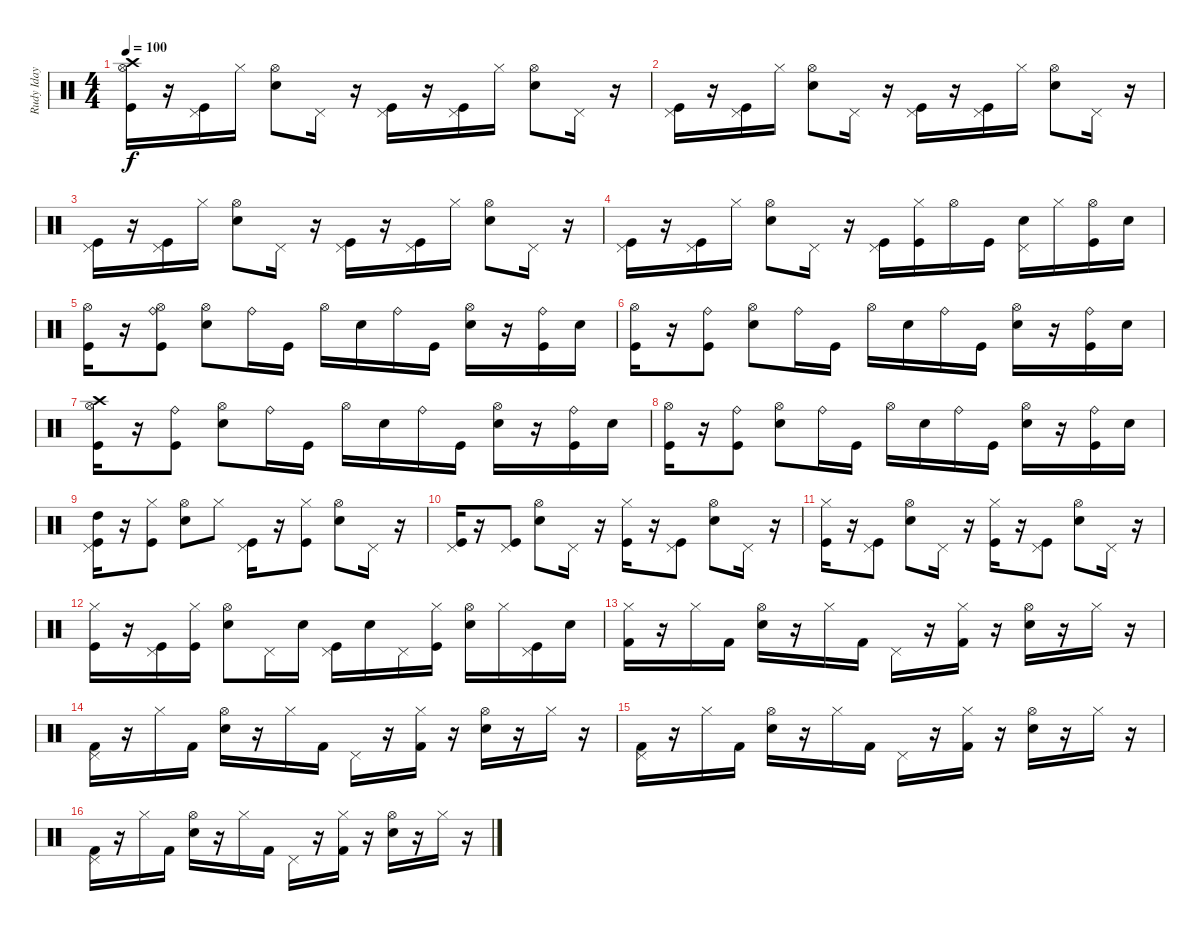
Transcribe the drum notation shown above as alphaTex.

\track ("Rudy Iday" "Rudy Iday") {instrument percussion}
\staff {score}
\articulation defaults
\ts (4 4)
\tempo 100
\clef neutral
\ks c
("Hi-Hat (open)" "Crash high (hit)" "Kick (hit)").16{dy f} r.16 ("Kick (hit)" "Pedal Hi-Hat (hit)").16 "Hi-Hat (closed)".16 ("Electric Snare (hit)" "Hi-Hat (open)").8 "Pedal Hi-Hat (hit)".16 r.16 ("Kick (hit)" "Pedal Hi-Hat (hit)").16 r.16 ("Kick (hit)" "Pedal Hi-Hat (hit)").16 "Hi-Hat (closed)".16 ("Electric Snare (hit)" "Hi-Hat (open)").8 "Pedal Hi-Hat (hit)".16 r.16 |
("Kick (hit)" "Pedal Hi-Hat (hit)").16 r.16 ("Kick (hit)" "Pedal Hi-Hat (hit)").16 "Hi-Hat (closed)".16 ("Electric Snare (hit)" "Hi-Hat (open)").8 "Pedal Hi-Hat (hit)".16 r.16 ("Pedal Hi-Hat (hit)" "Kick (hit)").16 r.16 ("Pedal Hi-Hat (hit)" "Kick (hit)").16 "Hi-Hat (closed)".16 ("Electric Snare (hit)" "Hi-Hat (open)").8 "Pedal Hi-Hat (hit)".16 r.16 |
("Pedal Hi-Hat (hit)" "Kick (hit)").16 r.16 ("Pedal Hi-Hat (hit)" "Kick (hit)").16 "Hi-Hat (closed)".16 ("Electric Snare (hit)" "Hi-Hat (open)").8 "Pedal Hi-Hat (hit)".16 r.16 ("Pedal Hi-Hat (hit)" "Kick (hit)").16 r.16 ("Pedal Hi-Hat (hit)" "Kick (hit)").16 "Hi-Hat (closed)".16 ("Electric Snare (hit)" "Hi-Hat (open)").8 "Pedal Hi-Hat (hit)".16 r.16 |
("Pedal Hi-Hat (hit)" "Kick (hit)").16 r.16 ("Pedal Hi-Hat (hit)" "Kick (hit)").16 "Hi-Hat (closed)".16 ("Electric Snare (hit)" "Hi-Hat (open)").8 "Pedal Hi-Hat (hit)".16 r.16 ("Pedal Hi-Hat (hit)" "Kick (hit)").16 ("Hi-Hat (closed)" "Kick (hit)").16 "Hi-Hat (open)".16 "Kick (hit)".16 ("Electric Snare (hit)" "Pedal Hi-Hat (hit)").16 "Hi-Hat (closed)".16 ("Hi-Hat (open)" "Kick (hit)").16 "Electric Snare (hit)".16 |
("Hi-Hat (open)" "Kick (hit)").16 r.16 ("Hi-Hat (open)" "Kick (hit)" "Ride (bell)").8 ("Electric Snare (hit)" "Hi-Hat (open)").8 "Ride (bell)".16 "Kick (hit)".16 "Hi-Hat (open)".16 "Electric Snare (hit)".16 "Ride (bell)".16 "Kick (hit)".16 ("Electric Snare (hit)" "Hi-Hat (open)").16 r.16 ("Ride (bell)" "Kick (hit)").16 "Electric Snare (hit)".16 |
("Hi-Hat (open)" "Kick (hit)").16 r.16 ("Ride (bell)" "Kick (hit)").8 ("Electric Snare (hit)" "Hi-Hat (open)").8 "Ride (bell)".16 "Kick (hit)".16 "Hi-Hat (open)".16 "Electric Snare (hit)".16 "Ride (bell)".16 "Kick (hit)".16 ("Electric Snare (hit)" "Hi-Hat (open)").16 r.16 ("Ride (bell)" "Kick (hit)").16 "Electric Snare (hit)".16 |
("Kick (hit)" "Hi-Hat (open)" "Crash high (hit)").16 r.16 ("Ride (bell)" "Kick (hit)").8 ("Electric Snare (hit)" "Hi-Hat (open)").8 "Ride (bell)".16 "Kick (hit)".16 "Hi-Hat (open)".16 "Electric Snare (hit)".16 "Ride (bell)".16 "Kick (hit)".16 ("Electric Snare (hit)" "Hi-Hat (open)").16 r.16 ("Ride (bell)" "Kick (hit)").16 "Electric Snare (hit)".16 |
("Hi-Hat (open)" "Kick (hit)").16 r.16 ("Ride (bell)" "Kick (hit)").8 ("Electric Snare (hit)" "Hi-Hat (open)").8 "Ride (bell)".16 "Kick (hit)".16 "Hi-Hat (open)".16 "Electric Snare (hit)".16 "Ride (bell)".16 "Kick (hit)".16 ("Electric Snare (hit)" "Hi-Hat (open)").16 r.16 ("Kick (hit)" "Ride (bell)").16 "Electric Snare (hit)".16 |
("High Tom (hit)" "Pedal Hi-Hat (hit)" "Kick (hit)").16 r.16 ("Kick (hit)" "Hi-Hat (closed)").8 ("Electric Snare (hit)" "Hi-Hat (open)").8 "Hi-Hat (closed)".8 ("Pedal Hi-Hat (hit)" "Kick (hit)").16 r.16 ("Hi-Hat (closed)" "Kick (hit)").8 ("Electric Snare (hit)" "Hi-Hat (open)").8 "Pedal Hi-Hat (hit)".16 r.16 |
("Pedal Hi-Hat (hit)" "Kick (hit)").16 r.16 ("Pedal Hi-Hat (hit)" "Kick (hit)").8 ("Electric Snare (hit)" "Hi-Hat (open)").8 "Pedal Hi-Hat (hit)".16 r.16 ("Kick (hit)" "Hi-Hat (closed)").16 r.16 ("Kick (hit)" "Pedal Hi-Hat (hit)").8 ("Electric Snare (hit)" "Hi-Hat (open)").8 "Pedal Hi-Hat (hit)".16 r.16 |
("Kick (hit)" "Hi-Hat (closed)").16 r.16 ("Pedal Hi-Hat (hit)" "Kick (hit)").8 ("Electric Snare (hit)" "Hi-Hat (open)").8 "Pedal Hi-Hat (hit)".16 r.16 ("Hi-Hat (closed)" "Kick (hit)").16 r.16 ("Pedal Hi-Hat (hit)" "Kick (hit)").8 ("Electric Snare (hit)" "Hi-Hat (open)").8 "Pedal Hi-Hat (hit)".16 r.16 |
("Hi-Hat (closed)" "Kick (hit)").16 r.16 ("Pedal Hi-Hat (hit)" "Kick (hit)").16 ("Hi-Hat (closed)" "Kick (hit)").16 ("Electric Snare (hit)" "Hi-Hat (open)").8 "Pedal Hi-Hat (hit)".16 "Electric Snare (hit)".16 ("Pedal Hi-Hat (hit)" "Kick (hit)").16 "Electric Snare (hit)".16 "Pedal Hi-Hat (hit)".16 ("Kick (hit)" "Hi-Hat (closed)").16 ("Electric Snare (hit)" "Hi-Hat (open)").16 "Hi-Hat (closed)".16 ("Pedal Hi-Hat (hit)" "Kick (hit)").16 "Electric Snare (hit)".16 |
("Kick (hit) 2" "Hi-Hat (closed)").16 r.16 "Hi-Hat (closed)".16 "Kick (hit) 2".16 ("Electric Snare (hit)" "Hi-Hat (open)").16 r.16 "Hi-Hat (closed)".16 "Kick (hit) 2".16 "Pedal Hi-Hat (hit)".16 r.16 ("Hi-Hat (closed)" "Kick (hit) 2").16 r.16 ("Electric Snare (hit)" "Hi-Hat (open)").16 r.16 "Hi-Hat (closed)".16 r.16 |
("Pedal Hi-Hat (hit)" "Kick (hit) 2").16 r.16 "Hi-Hat (closed)".16 "Kick (hit) 2".16 ("Electric Snare (hit)" "Hi-Hat (open)").16 r.16 "Hi-Hat (closed)".16 "Kick (hit) 2".16 "Pedal Hi-Hat (hit)".16 r.16 ("Hi-Hat (closed)" "Kick (hit) 2").16 r.16 ("Electric Snare (hit)" "Hi-Hat (open)").16 r.16 "Hi-Hat (closed)".16 r.16 |
("Kick (hit) 2" "Pedal Hi-Hat (hit)").16 r.16 "Hi-Hat (closed)".16 "Kick (hit) 2".16 ("Electric Snare (hit)" "Hi-Hat (open)").16 r.16 "Hi-Hat (closed)".16 "Kick (hit) 2".16 "Pedal Hi-Hat (hit)".16 r.16 ("Hi-Hat (closed)" "Kick (hit) 2").16 r.16 ("Electric Snare (hit)" "Hi-Hat (open)").16 r.16 "Hi-Hat (closed)".16 r.16 |
("Kick (hit) 2" "Pedal Hi-Hat (hit)").16 r.16 "Hi-Hat (closed)".16 "Kick (hit) 2".16 ("Electric Snare (hit)" "Hi-Hat (open)").16 r.16 "Hi-Hat (closed)".16 "Kick (hit) 2".16 "Pedal Hi-Hat (hit)".16 r.16 ("Hi-Hat (closed)" "Kick (hit) 2").16 r.16 ("Electric Snare (hit)" "Hi-Hat (open)").16 r.16 "Hi-Hat (closed)".16 r.16
